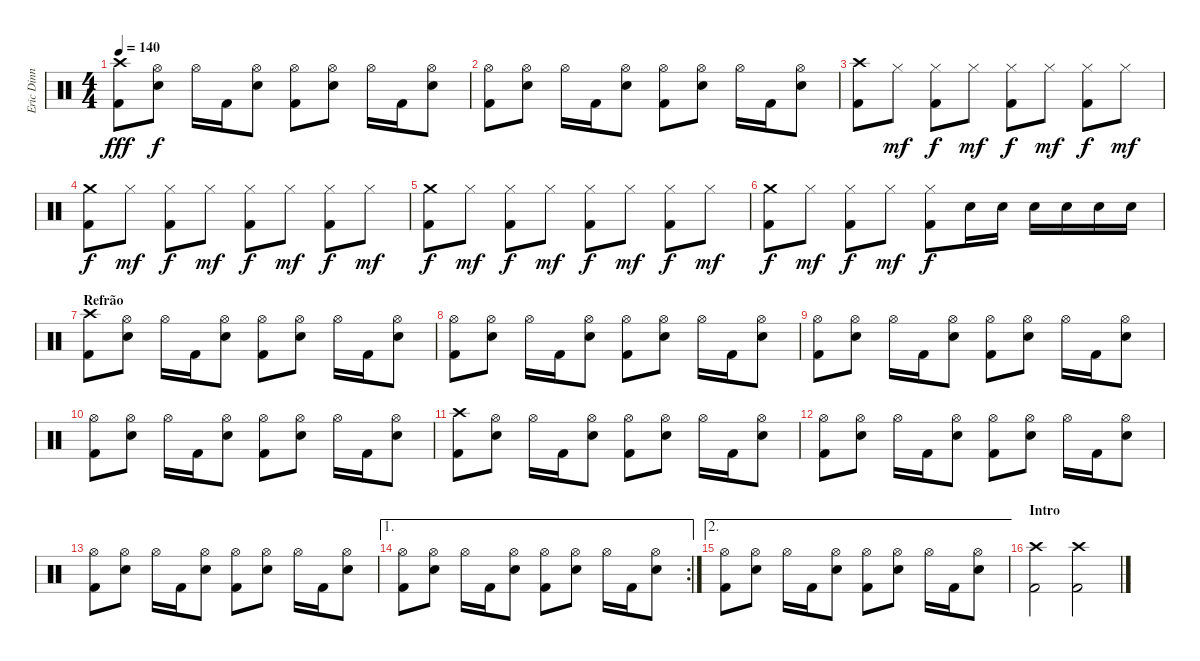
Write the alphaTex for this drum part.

\track ("Eric Dinn" "Eric Dinn") {instrument percussion}
\staff {score}
\articulation defaults
\ts (4 4)
\tempo 140
\clef neutral
\ks c
("Crash high (hit)" "Kick (hit) 2").8{dy fff} ("Hi-Hat (open)" "Snare (hit) 2").8{dy f} "Hi-Hat (open)".16 "Kick (hit) 2".16 ("Hi-Hat (open)" "Snare (hit) 2").8 ("Hi-Hat (open)" "Kick (hit) 2").8 ("Hi-Hat (open)" "Snare (hit) 2").8 "Hi-Hat (open)".16 "Kick (hit) 2".16 ("Hi-Hat (open)" "Snare (hit) 2").8 |
("Hi-Hat (open)" "Kick (hit) 2").8 ("Hi-Hat (open)" "Snare (hit) 2").8 "Hi-Hat (open)".16 "Kick (hit) 2".16 ("Hi-Hat (open)" "Snare (hit) 2").8 ("Hi-Hat (open)" "Kick (hit) 2").8 ("Hi-Hat (open)" "Snare (hit) 2").8 "Hi-Hat (open)".16 "Kick (hit) 2".16 ("Hi-Hat (open)" "Snare (hit) 2").8 |
("Crash high (hit)" "Kick (hit) 2").8 "Hi-Hat (closed)".8{dy mf} ("Hi-Hat (closed)" "Kick (hit) 2").8{dy f} "Hi-Hat (closed)".8{dy mf} ("Hi-Hat (closed)" "Kick (hit) 2").8{dy f} "Hi-Hat (closed)".8{dy mf} ("Hi-Hat (closed)" "Kick (hit) 2").8{dy f} "Hi-Hat (closed)".8{dy mf} |
("Crash medium (hit)" "Kick (hit) 2").8{dy f} "Hi-Hat (closed)".8{dy mf} ("Hi-Hat (closed)" "Kick (hit) 2").8{dy f} "Hi-Hat (closed)".8{dy mf} ("Hi-Hat (closed)" "Kick (hit) 2").8{dy f} "Hi-Hat (closed)".8{dy mf} ("Hi-Hat (closed)" "Kick (hit) 2").8{dy f} "Hi-Hat (closed)".8{dy mf} |
("Crash medium (hit)" "Kick (hit) 2").8{dy f} "Hi-Hat (closed)".8{dy mf} ("Hi-Hat (closed)" "Kick (hit) 2").8{dy f} "Hi-Hat (closed)".8{dy mf} ("Hi-Hat (closed)" "Kick (hit) 2").8{dy f} "Hi-Hat (closed)".8{dy mf} ("Hi-Hat (closed)" "Kick (hit) 2").8{dy f} "Hi-Hat (closed)".8{dy mf} |
("Crash medium (hit)" "Kick (hit) 2").8{dy f} "Hi-Hat (closed)".8{dy mf} ("Hi-Hat (closed)" "Kick (hit) 2").8{dy f} "Hi-Hat (closed)".8{dy mf} ("Hi-Hat (closed)" "Kick (hit) 2").8{dy f} "Snare (hit) 2".16 "Snare (hit) 2".16 "Snare (hit) 2".16 "Snare (hit) 2".16 "Snare (hit) 2".16 "Snare (hit) 2".16 |
\section ("" "Refrão")
("Crash high (hit)" "Kick (hit) 2").8 ("Hi-Hat (open)" "Snare (hit) 2").8 "Hi-Hat (open)".16 "Kick (hit) 2".16 ("Hi-Hat (open)" "Snare (hit) 2").8 ("Hi-Hat (open)" "Kick (hit) 2").8 ("Hi-Hat (open)" "Snare (hit) 2").8 "Hi-Hat (open)".16 "Kick (hit) 2".16 ("Hi-Hat (open)" "Snare (hit) 2").8 |
("Hi-Hat (open)" "Kick (hit) 2").8 ("Hi-Hat (open)" "Snare (hit) 2").8 "Hi-Hat (open)".16 "Kick (hit) 2".16 ("Hi-Hat (open)" "Snare (hit) 2").8 ("Hi-Hat (open)" "Kick (hit) 2").8 ("Hi-Hat (open)" "Snare (hit) 2").8 "Hi-Hat (open)".16 "Kick (hit) 2".16 ("Hi-Hat (open)" "Snare (hit) 2").8 |
("Hi-Hat (open)" "Kick (hit) 2").8 ("Hi-Hat (open)" "Snare (hit) 2").8 "Hi-Hat (open)".16 "Kick (hit) 2".16 ("Hi-Hat (open)" "Snare (hit) 2").8 ("Hi-Hat (open)" "Kick (hit) 2").8 ("Hi-Hat (open)" "Snare (hit) 2").8 "Hi-Hat (open)".16 "Kick (hit) 2".16 ("Hi-Hat (open)" "Snare (hit) 2").8 |
("Hi-Hat (open)" "Kick (hit) 2").8 ("Hi-Hat (open)" "Snare (hit) 2").8 "Hi-Hat (open)".16 "Kick (hit) 2".16 ("Hi-Hat (open)" "Snare (hit) 2").8 ("Hi-Hat (open)" "Kick (hit) 2").8 ("Hi-Hat (open)" "Snare (hit) 2").8 "Hi-Hat (open)".16 "Kick (hit) 2".16 ("Hi-Hat (open)" "Snare (hit) 2").8 |
("Crash high (hit)" "Kick (hit) 2").8 ("Hi-Hat (open)" "Snare (hit) 2").8 "Hi-Hat (open)".16 "Kick (hit) 2".16 ("Hi-Hat (open)" "Snare (hit) 2").8 ("Hi-Hat (open)" "Kick (hit) 2").8 ("Hi-Hat (open)" "Snare (hit) 2").8 "Hi-Hat (open)".16 "Kick (hit) 2".16 ("Hi-Hat (open)" "Snare (hit) 2").8 |
("Hi-Hat (open)" "Kick (hit) 2").8 ("Hi-Hat (open)" "Snare (hit) 2").8 "Hi-Hat (open)".16 "Kick (hit) 2".16 ("Hi-Hat (open)" "Snare (hit) 2").8 ("Hi-Hat (open)" "Kick (hit) 2").8 ("Hi-Hat (open)" "Snare (hit) 2").8 "Hi-Hat (open)".16 "Kick (hit) 2".16 ("Hi-Hat (open)" "Snare (hit) 2").8 |
("Hi-Hat (open)" "Kick (hit) 2").8 ("Hi-Hat (open)" "Snare (hit) 2").8 "Hi-Hat (open)".16 "Kick (hit) 2".16 ("Hi-Hat (open)" "Snare (hit) 2").8 ("Hi-Hat (open)" "Kick (hit) 2").8 ("Hi-Hat (open)" "Snare (hit) 2").8 "Hi-Hat (open)".16 "Kick (hit) 2".16 ("Hi-Hat (open)" "Snare (hit) 2").8 |
\ae 1
\rc 2
("Hi-Hat (open)" "Kick (hit) 2").8 ("Hi-Hat (open)" "Snare (hit) 2").8 "Hi-Hat (open)".16 "Kick (hit) 2".16 ("Hi-Hat (open)" "Snare (hit) 2").8 ("Hi-Hat (open)" "Kick (hit) 2").8 ("Hi-Hat (open)" "Snare (hit) 2").8 "Hi-Hat (open)".16 "Kick (hit) 2".16 ("Hi-Hat (open)" "Snare (hit) 2").8 |
\ae 2
("Hi-Hat (open)" "Kick (hit) 2").8 ("Hi-Hat (open)" "Snare (hit) 2").8 "Hi-Hat (open)".16 "Kick (hit) 2".16 ("Hi-Hat (open)" "Snare (hit) 2").8 ("Hi-Hat (open)" "Kick (hit) 2").8 ("Hi-Hat (open)" "Snare (hit) 2").8 "Hi-Hat (open)".16 "Kick (hit) 2".16 ("Hi-Hat (open)" "Snare (hit) 2").8 |
\section ("" "Intro")
("Crash high (hit)" "Kick (hit) 2").2 ("Crash high (hit)" "Kick (hit) 2").2
